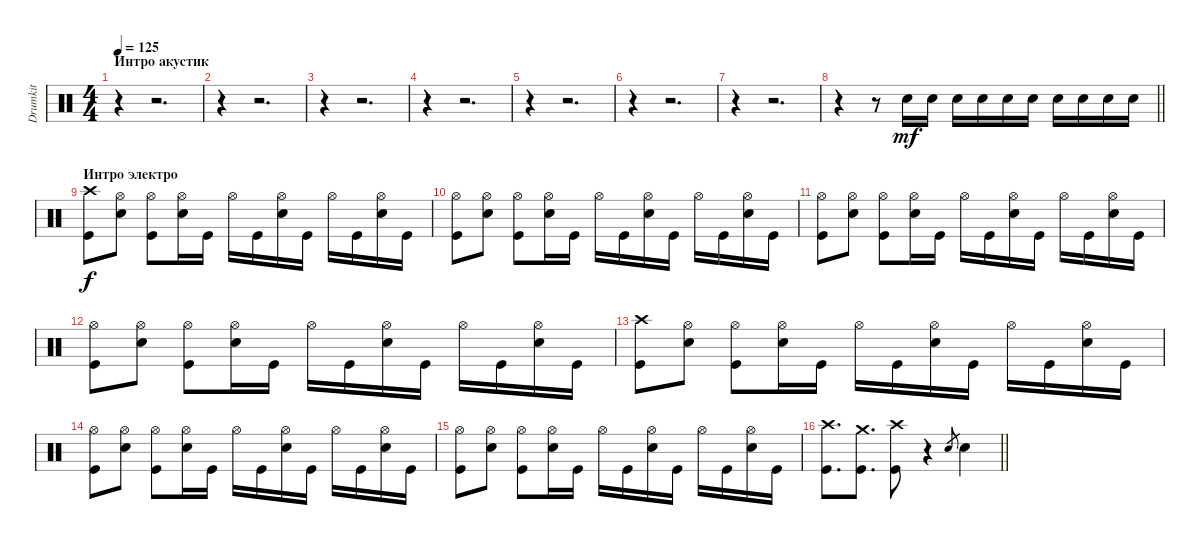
\track ("Drumkit" "Drumkit") {instrument percussion}
\staff {score}
\articulation defaults
\ts (4 4)
\section ("" "Интро акустик")
\tempo 125
\clef neutral
\ks c
r.4{dy mf} r.2{d} |
r.4 r.2{d} |
r.4 r.2{d} |
r.4 r.2{d} |
r.4 r.2{d} |
r.4 r.2{d} |
r.4 r.2{d} |
\barLineRight lightlight
r.4 r.8 "Snare (hit) 2".16 "Snare (hit) 2".16 "Snare (hit) 2".16 "Snare (hit) 2".16 "Snare (hit) 2".16 "Snare (hit) 2".16 "Snare (hit) 2".16 "Snare (hit) 2".16 "Snare (hit) 2".16 "Snare (hit) 2".16 |
\section ("" "Интро электро")
("Crash high (hit)" "Kick (hit)").8{dy f} ("Hi-Hat (open)" "Snare (hit) 2").8 ("Kick (hit)" "Hi-Hat (open)").8 ("Hi-Hat (open)" "Snare (hit) 2").16 "Kick (hit)".16 "Hi-Hat (open)".16 "Kick (hit)".16 ("Hi-Hat (open)" "Snare (hit) 2").16 "Kick (hit)".16 "Hi-Hat (open)".16 "Kick (hit)".16 ("Hi-Hat (open)" "Snare (hit) 2").16 "Kick (hit)".16 |
("Hi-Hat (open)" "Kick (hit)").8 ("Hi-Hat (open)" "Snare (hit) 2").8 ("Kick (hit)" "Hi-Hat (open)").8 ("Hi-Hat (open)" "Snare (hit) 2").16 "Kick (hit)".16 "Hi-Hat (open)".16 "Kick (hit)".16 ("Hi-Hat (open)" "Snare (hit) 2").16 "Kick (hit)".16 "Hi-Hat (open)".16 "Kick (hit)".16 ("Hi-Hat (open)" "Snare (hit) 2").16 "Kick (hit)".16 |
("Hi-Hat (open)" "Kick (hit)").8 ("Hi-Hat (open)" "Snare (hit) 2").8 ("Kick (hit)" "Hi-Hat (open)").8 ("Hi-Hat (open)" "Snare (hit) 2").16 "Kick (hit)".16 "Hi-Hat (open)".16 "Kick (hit)".16 ("Hi-Hat (open)" "Snare (hit) 2").16 "Kick (hit)".16 "Hi-Hat (open)".16 "Kick (hit)".16 ("Hi-Hat (open)" "Snare (hit) 2").16 "Kick (hit)".16 |
("Hi-Hat (open)" "Kick (hit)").8 ("Hi-Hat (open)" "Snare (hit) 2").8 ("Kick (hit)" "Hi-Hat (open)").8 ("Hi-Hat (open)" "Snare (hit) 2").16 "Kick (hit)".16 "Hi-Hat (open)".16 "Kick (hit)".16 ("Hi-Hat (open)" "Snare (hit) 2").16 "Kick (hit)".16 "Hi-Hat (open)".16 "Kick (hit)".16 ("Hi-Hat (open)" "Snare (hit) 2").16 "Kick (hit)".16 |
("Crash high (hit)" "Kick (hit)").8 ("Hi-Hat (open)" "Snare (hit) 2").8 ("Kick (hit)" "Hi-Hat (open)").8 ("Hi-Hat (open)" "Snare (hit) 2").16 "Kick (hit)".16 "Hi-Hat (open)".16 "Kick (hit)".16 ("Hi-Hat (open)" "Snare (hit) 2").16 "Kick (hit)".16 "Hi-Hat (open)".16 "Kick (hit)".16 ("Hi-Hat (open)" "Snare (hit) 2").16 "Kick (hit)".16 |
("Hi-Hat (open)" "Kick (hit)").8 ("Hi-Hat (open)" "Snare (hit) 2").8 ("Kick (hit)" "Hi-Hat (open)").8 ("Hi-Hat (open)" "Snare (hit) 2").16 "Kick (hit)".16 "Hi-Hat (open)".16 "Kick (hit)".16 ("Hi-Hat (open)" "Snare (hit) 2").16 "Kick (hit)".16 "Hi-Hat (open)".16 "Kick (hit)".16 ("Hi-Hat (open)" "Snare (hit) 2").16 "Kick (hit)".16 |
("Hi-Hat (open)" "Kick (hit)").8 ("Hi-Hat (open)" "Snare (hit) 2").8 ("Kick (hit)" "Hi-Hat (open)").8 ("Hi-Hat (open)" "Snare (hit) 2").16 "Kick (hit)".16 "Hi-Hat (open)".16 "Kick (hit)".16 ("Hi-Hat (open)" "Snare (hit) 2").16 "Kick (hit)".16 "Hi-Hat (open)".16 "Kick (hit)".16 ("Hi-Hat (open)" "Snare (hit) 2").16 "Kick (hit)".16 |
\barLineRight lightlight
("Crash high (hit)" "Kick (hit)").8{d} ("Crash medium (hit)" "Kick (hit)").8{d} ("Crash high (hit)" "Kick (hit)").8 r.4 "Snare (hit)".8{gr} "Snare (hit) 2".4
